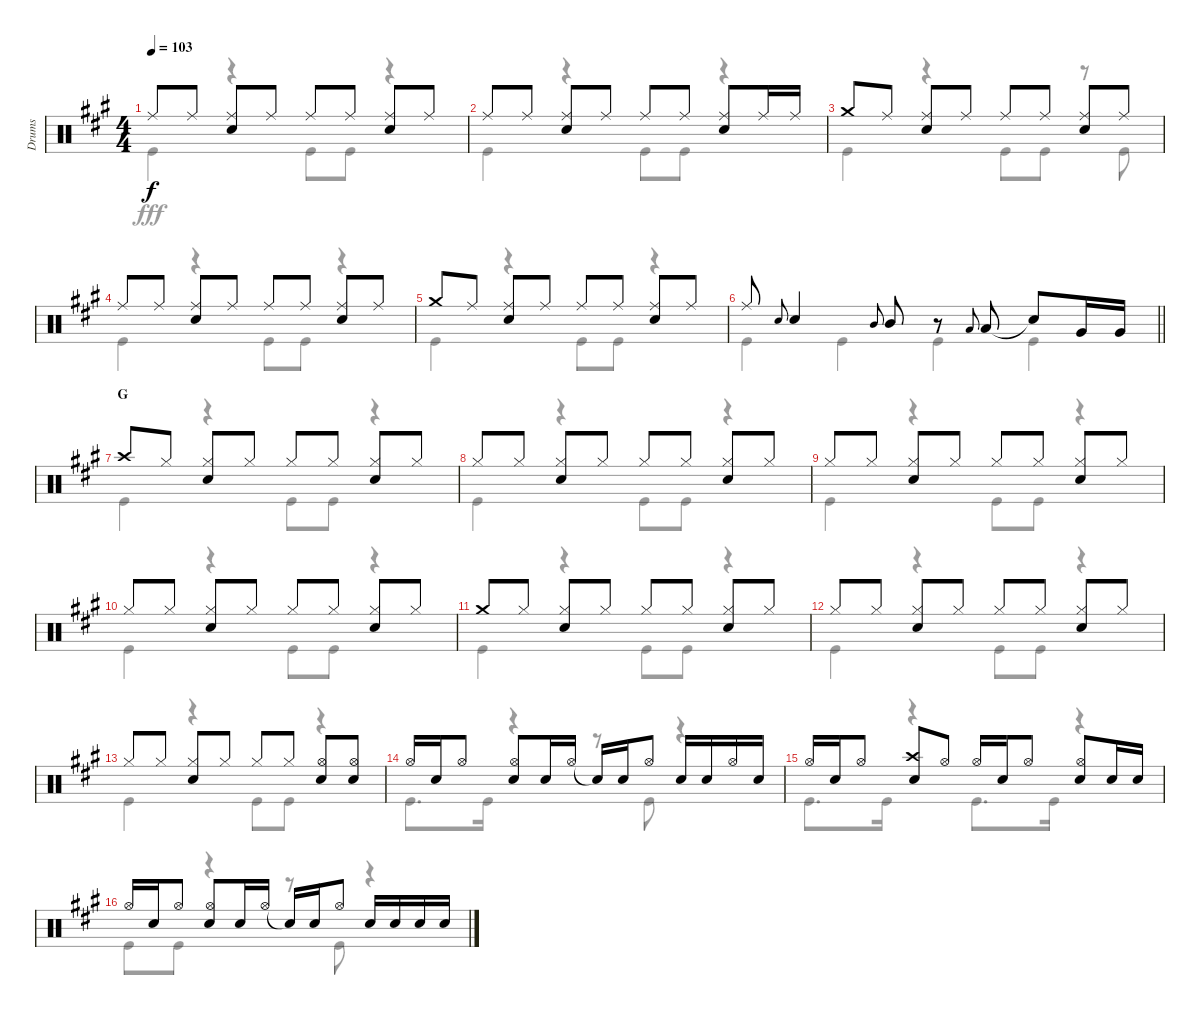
\track ("Drums" "Drums") {instrument percussion}
\staff {score}
\articulation defaults
\voice
\ts (4 4)
\tempo 103
\clef neutral
\ks a "Ride (middle)".8{dy f} "Ride (middle)".8
("Ride (middle)" "Snare (hit) 2").8 "Ride (middle)".8 "Ride (middle)".8 "Ride (middle)".8 ("Ride (middle)" "Snare (hit) 2").8 "Ride (middle)".8 |
"Ride (middle)".8 "Ride (middle)".8 ("Ride (middle)" "Snare (hit) 2").8 "Ride (middle)".8 "Ride (middle)".8 "Ride (middle)".8 ("Ride (middle)" "Snare (hit) 2").8 "Ride (middle)".16 "Ride (middle)".16 |
"Crash medium (hit)".8 "Ride (middle)".8 ("Ride (middle)" "Snare (hit) 2").8 "Ride (middle)".8 "Ride (middle)".8 "Ride (middle)".8 ("Ride (middle)" "Snare (hit) 2").8 "Ride (middle)".8 |
"Ride (middle)".8 "Ride (middle)".8 ("Ride (middle)" "Snare (hit) 2").8 "Ride (middle)".8 "Ride (middle)".8 "Ride (middle)".8 ("Ride (middle)" "Snare (hit) 2").8 "Ride (middle)".8 |
"Crash medium (hit)".8 "Ride (middle)".8 ("Ride (middle)" "Snare (hit) 2").8 "Ride (middle)".8 "Ride (middle)".8 "Ride (middle)".8 ("Ride (middle)" "Snare (hit) 2").8 "Ride (middle)".8 |
\barLineRight lightlight "Ride (middle)".8 "Snare (hit) 2".8{gr onbeat} "Snare (hit) 2".4 "Mid Tom (hit)".8{gr onbeat} "Mid Tom (hit)".8
r.8 "Low Tom (hit)".8{gr onbeat} "Low Tom (hit)".8 "Snare (hit)"{t}.8 "Very Low Tom (hit)".16 "Very Low Tom (hit)".16 |
\section ("" "G")
"Crash high (hit)".8 "Hi-Hat (closed)".8 ("Hi-Hat (closed)" "Snare (hit) 2").8 "Hi-Hat (closed)".8 "Hi-Hat (closed)".8 "Hi-Hat (closed)".8 ("Hi-Hat (closed)" "Snare (hit) 2").8 "Hi-Hat (closed)".8 |
"Hi-Hat (closed)".8 "Hi-Hat (closed)".8 ("Hi-Hat (closed)" "Snare (hit) 2").8 "Hi-Hat (closed)".8 "Hi-Hat (closed)".8 "Hi-Hat (closed)".8 ("Hi-Hat (closed)" "Snare (hit) 2").8 "Hi-Hat (closed)".8 |
"Hi-Hat (closed)".8 "Hi-Hat (closed)".8 ("Hi-Hat (closed)" "Snare (hit) 2").8 "Hi-Hat (closed)".8 "Hi-Hat (closed)".8 "Hi-Hat (closed)".8 ("Hi-Hat (closed)" "Snare (hit) 2").8 "Hi-Hat (closed)".8 |
"Hi-Hat (closed)".8 "Hi-Hat (closed)".8 ("Hi-Hat (closed)" "Snare (hit) 2").8 "Hi-Hat (closed)".8 "Hi-Hat (closed)".8 "Hi-Hat (closed)".8 ("Hi-Hat (closed)" "Snare (hit) 2").8 "Hi-Hat (closed)".8 |
"Crash medium (hit)".8 "Hi-Hat (closed)".8 ("Hi-Hat (closed)" "Snare (hit) 2").8 "Hi-Hat (closed)".8 "Hi-Hat (closed)".8 "Hi-Hat (closed)".8 ("Hi-Hat (closed)" "Snare (hit) 2").8 "Hi-Hat (closed)".8 |
"Hi-Hat (closed)".8 "Hi-Hat (closed)".8 ("Hi-Hat (closed)" "Snare (hit) 2").8 "Hi-Hat (closed)".8 "Hi-Hat (closed)".8 "Hi-Hat (closed)".8 ("Hi-Hat (closed)" "Snare (hit) 2").8 "Hi-Hat (closed)".8 |
"Hi-Hat (closed)".8 "Hi-Hat (closed)".8 ("Hi-Hat (closed)" "Snare (hit) 2").8 "Hi-Hat (closed)".8 "Hi-Hat (closed)".8 "Hi-Hat (closed)".8 ("Hi-Hat (open)" "Snare (hit) 2").8 ("Hi-Hat (open)" "Snare (hit) 2").8 |
"Hi-Hat (open)".16 "Snare (hit) 2".16 "Hi-Hat (open)".8 ("Hi-Hat (open)" "Snare (hit) 2").8 "Snare (hit) 2".16 "Hi-Hat (open)".16 "Snare (hit)"{t}.16 "Snare (hit) 2".16 "Hi-Hat (open)".8 "Snare (hit) 2".16 "Snare (hit) 2".16 "Hi-Hat (open)".16 "Snare (hit) 2".16 |
"Hi-Hat (open)".16 "Snare (hit) 2".16 "Hi-Hat (open)".8 ("Crash high (hit)" "Snare (hit) 2").8 "Hi-Hat (open)".8 "Hi-Hat (open)".16 "Snare (hit) 2".16 "Hi-Hat (open)".8 ("Hi-Hat (open)" "Snare (hit) 2").8 "Snare (hit) 2".16 "Snare (hit) 2".16 |
"Hi-Hat (open)".16 "Snare (hit) 2".16 "Hi-Hat (open)".8 ("Hi-Hat (open)" "Snare (hit) 2").8 "Snare (hit) 2".16 "Hi-Hat (open)".16 "Snare (hit)"{t}.16 "Snare (hit) 2".16 "Hi-Hat (open)".8 "Snare (hit) 2".16 "Snare (hit) 2".16 "Snare (hit) 2".16 "Snare (hit) 2".16
\voice
\clef neutral
\ottava regular
\simile none
\ks a "Kick (hit)".4{dy fff}
r.4 "Kick (hit)".8 "Kick (hit)".8 r.4 |
"Kick (hit)".4 r.4 "Kick (hit)".8 "Kick (hit)".8 r.4 |
"Kick (hit)".4 r.4 "Kick (hit)".8 "Kick (hit)".8 r.8 "Kick (hit)".8 |
"Kick (hit)".4 r.4 "Kick (hit)".8 "Kick (hit)".8 r.4 |
"Kick (hit)".4 r.4 "Kick (hit)".8 "Kick (hit)".8 r.4 |
\barLineRight lightlight "Kick (hit)".4 "Kick (hit)".4 "Kick (hit)".4 "Kick (hit)".4
|
"Kick (hit)".4 r.4 "Kick (hit)".8 "Kick (hit)".8 r.4 |
"Kick (hit)".4 r.4 "Kick (hit)".8 "Kick (hit)".8 r.4 |
"Kick (hit)".4 r.4 "Kick (hit)".8 "Kick (hit)".8 r.4 |
"Kick (hit)".4 r.4 "Kick (hit)".8 "Kick (hit)".8 r.4 |
"Kick (hit)".4 r.4 "Kick (hit)".8 "Kick (hit)".8 r.4 |
"Kick (hit)".4 r.4 "Kick (hit)".8 "Kick (hit)".8 r.4 |
"Kick (hit)".4 r.4 "Kick (hit)".8 "Kick (hit)".8 r.4 |
"Kick (hit)".8{d} "Kick (hit)".16 r.4 r.8 "Kick (hit)".8 r.4 |
"Kick (hit)".8{d} "Kick (hit)".16 r.4 "Kick (hit)".8{d} "Kick (hit)".16 r.4 |
"Kick (hit)".8 "Kick (hit)".8 r.4 r.8 "Kick (hit)".8 r.4
